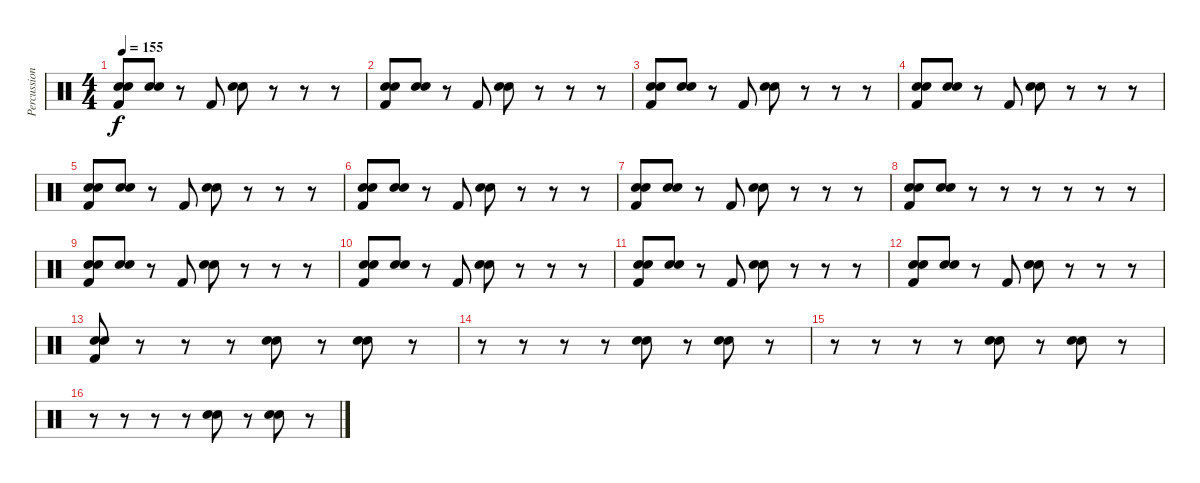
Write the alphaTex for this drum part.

\track ("Percussion" "Percussion") {instrument percussion}
\staff {score}
\articulation defaults
\ts (4 4)
\tempo 155
\clef neutral
\ks c
("Hand Clap (hit)" "Snare (hit) 2" "Kick (hit) 2").8{dy f} ("Hand Clap (hit)" "Snare (hit) 2").8 r.8 "Kick (hit) 2".8 ("Hand Clap (hit)" "Snare (hit) 2").8 r.8 r.8 r.8 |
("Hand Clap (hit)" "Snare (hit) 2" "Kick (hit) 2").8 ("Hand Clap (hit)" "Snare (hit) 2").8 r.8 "Kick (hit) 2".8 ("Hand Clap (hit)" "Snare (hit) 2").8 r.8 r.8 r.8 |
("Hand Clap (hit)" "Snare (hit) 2" "Kick (hit) 2").8 ("Hand Clap (hit)" "Snare (hit) 2").8 r.8 "Kick (hit) 2".8 ("Hand Clap (hit)" "Snare (hit) 2").8 r.8 r.8 r.8 |
("Hand Clap (hit)" "Snare (hit) 2" "Kick (hit) 2").8 ("Hand Clap (hit)" "Snare (hit) 2").8 r.8 "Kick (hit) 2".8 ("Hand Clap (hit)" "Snare (hit) 2").8 r.8 r.8 r.8 |
("Hand Clap (hit)" "Snare (hit) 2" "Kick (hit) 2").8 ("Hand Clap (hit)" "Snare (hit) 2").8 r.8 "Kick (hit) 2".8 ("Hand Clap (hit)" "Snare (hit) 2").8 r.8 r.8 r.8 |
("Hand Clap (hit)" "Snare (hit) 2" "Kick (hit) 2").8 ("Hand Clap (hit)" "Snare (hit) 2").8 r.8 "Kick (hit) 2".8 ("Hand Clap (hit)" "Snare (hit) 2").8 r.8 r.8 r.8 |
("Hand Clap (hit)" "Snare (hit) 2" "Kick (hit) 2").8 ("Hand Clap (hit)" "Snare (hit) 2").8 r.8 "Kick (hit) 2".8 ("Hand Clap (hit)" "Snare (hit) 2").8 r.8 r.8 r.8 |
("Hand Clap (hit)" "Snare (hit) 2" "Kick (hit) 2").8 ("Hand Clap (hit)" "Snare (hit) 2").8 r.8 r.8 r.8 r.8 r.8 r.8 |
("Hand Clap (hit)" "Snare (hit) 2" "Kick (hit) 2").8 ("Hand Clap (hit)" "Snare (hit) 2").8 r.8 "Kick (hit) 2".8 ("Hand Clap (hit)" "Snare (hit) 2").8 r.8 r.8 r.8 |
("Hand Clap (hit)" "Snare (hit) 2" "Kick (hit) 2").8 ("Hand Clap (hit)" "Snare (hit) 2").8 r.8 "Kick (hit) 2".8 ("Hand Clap (hit)" "Snare (hit) 2").8 r.8 r.8 r.8 |
("Hand Clap (hit)" "Snare (hit) 2" "Kick (hit) 2").8 ("Hand Clap (hit)" "Snare (hit) 2").8 r.8 "Kick (hit) 2".8 ("Hand Clap (hit)" "Snare (hit) 2").8 r.8 r.8 r.8 |
("Hand Clap (hit)" "Snare (hit) 2" "Kick (hit) 2").8 ("Hand Clap (hit)" "Snare (hit) 2").8 r.8 "Kick (hit) 2".8 ("Hand Clap (hit)" "Snare (hit) 2").8 r.8 r.8 r.8 |
("Hand Clap (hit)" "Snare (hit) 2" "Kick (hit) 2").8 r.8 r.8 r.8 ("Hand Clap (hit)" "Snare (hit) 2").8 r.8 ("Hand Clap (hit)" "Snare (hit) 2").8 r.8 |
r.8 r.8 r.8 r.8 ("Hand Clap (hit)" "Snare (hit) 2").8 r.8 ("Hand Clap (hit)" "Snare (hit) 2").8 r.8 |
r.8 r.8 r.8 r.8 ("Hand Clap (hit)" "Snare (hit) 2").8 r.8 ("Hand Clap (hit)" "Snare (hit) 2").8 r.8 |
r.8 r.8 r.8 r.8 ("Hand Clap (hit)" "Snare (hit) 2").8 r.8 ("Hand Clap (hit)" "Snare (hit) 2").8 r.8
